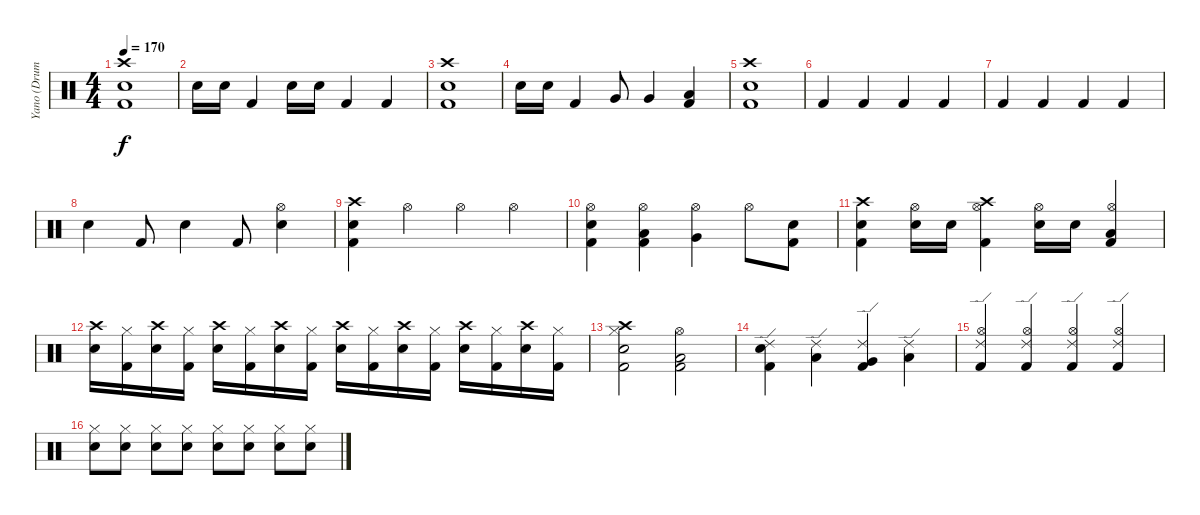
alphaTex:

\track ("Yano (Drums)" "Yano (Drum") {instrument percussion}
\staff {score}
\articulation defaults
\ts (4 4)
\tempo 170
\clef neutral
\ks c
("Crash high (hit)" "Electric Snare (hit)" "Kick (hit) 2").1{dy f} |
"Electric Snare (hit)".16 "Electric Snare (hit)".16 "Kick (hit) 2".4 "Electric Snare (hit)".16 "Electric Snare (hit)".16 "Kick (hit) 2".4 "Kick (hit) 2".4 |
("Crash high (hit)" "Electric Snare (hit)" "Kick (hit) 2").1 |
"Electric Snare (hit)".16 "Electric Snare (hit)".16 "Kick (hit) 2".4 "Very Low Tom (hit)".8 "Very Low Tom (hit)".4 ("Low Floor Tom (hit)" "Kick (hit) 2").4 |
("Crash high (hit)" "Electric Snare (hit)" "Kick (hit) 2").1 |
"Kick (hit) 2".4 "Kick (hit) 2".4 "Kick (hit) 2".4 "Kick (hit) 2".4 |
"Kick (hit) 2".4 "Kick (hit) 2".4 "Kick (hit) 2".4 "Kick (hit) 2".4 |
"Electric Snare (hit)".4 "Kick (hit) 2".8 "Electric Snare (hit)".4 "Kick (hit) 2".8 ("Electric Snare (hit)" "Hi-Hat (open)").4 |
("Crash high (hit)" "Electric Snare (hit)" "Kick (hit) 2").4 "Hi-Hat (open)".4 "Hi-Hat (open)".4 "Hi-Hat (open)".4 |
("Hi-Hat (open)" "Electric Snare (hit)" "Kick (hit) 2").4 ("Hi-Hat (open)" "Low Floor Tom (hit)" "Kick (hit) 2").4 ("Hi-Hat (open)" "Very Low Tom (hit)").4 "Hi-Hat (open)".8 ("Electric Snare (hit)" "Kick (hit) 2").8 |
("Crash high (hit)" "Electric Snare (hit)" "Kick (hit) 2").4 ("Hi-Hat (open)" "Electric Snare (hit)").16 "Electric Snare (hit)".16 ("Hi-Hat (open)" "Crash high (hit)" "Kick (hit) 2").4 ("Hi-Hat (open)" "Electric Snare (hit)").16 "Electric Snare (hit)".16 ("Hi-Hat (open)" "Low Tom (hit)" "Kick (hit) 2").4 |
("Crash high (hit)" "Electric Snare (hit)").16 ("Hi-Hat (closed)" "Kick (hit) 2").16 ("Crash high (hit)" "Electric Snare (hit)").16 ("Hi-Hat (closed)" "Kick (hit) 2").16 ("Crash high (hit)" "Electric Snare (hit)").16 ("Hi-Hat (closed)" "Kick (hit) 2").16 ("Crash high (hit)" "Electric Snare (hit)").16 ("Hi-Hat (closed)" "Kick (hit) 2").16 ("Crash high (hit)" "Electric Snare (hit)").16 ("Hi-Hat (closed)" "Kick (hit) 2").16 ("Crash high (hit)" "Electric Snare (hit)").16 ("Hi-Hat (closed)" "Kick (hit) 2").16 ("Crash high (hit)" "Electric Snare (hit)").16 ("Hi-Hat (closed)" "Kick (hit) 2").16 ("Crash high (hit)" "Electric Snare (hit)").16 ("Hi-Hat (closed)" "Kick (hit) 2").16 |
("Crash high (hit)" "Electric Snare (hit)" "Hi-Hat (closed)" "Kick (hit) 2").2 ("Low Floor Tom (hit)" "Hi-Hat (open)" "Kick (hit) 2").2 |
("Ride (edge) 2" "Electric Snare (hit)" "Kick (hit) 2").4 ("Ride (edge) 2" "Low Floor Tom (hit)").4 ("Ride (edge) 2" "Very Low Tom (hit)" "Kick (hit) 2").4 ("Ride (edge) 2" "Low Tom (hit)").4 |
("Ride (edge) 2" "Hi-Hat (open)" "Kick (hit) 2").4 ("Ride (edge) 2" "Hi-Hat (open)" "Kick (hit) 2").4 ("Ride (edge) 2" "Hi-Hat (open)" "Kick (hit) 2").4 ("Ride (edge) 2" "Hi-Hat (open)" "Kick (hit) 2").4 |
("Hi-Hat (closed)" "Electric Snare (hit)").8 ("Hi-Hat (closed)" "Electric Snare (hit)").8 ("Hi-Hat (closed)" "Electric Snare (hit)").8 ("Hi-Hat (closed)" "Electric Snare (hit)").8 ("Hi-Hat (closed)" "Electric Snare (hit)").8 ("Hi-Hat (closed)" "Electric Snare (hit)").8 ("Hi-Hat (closed)" "Electric Snare (hit)").8 ("Hi-Hat (closed)" "Electric Snare (hit)").8
